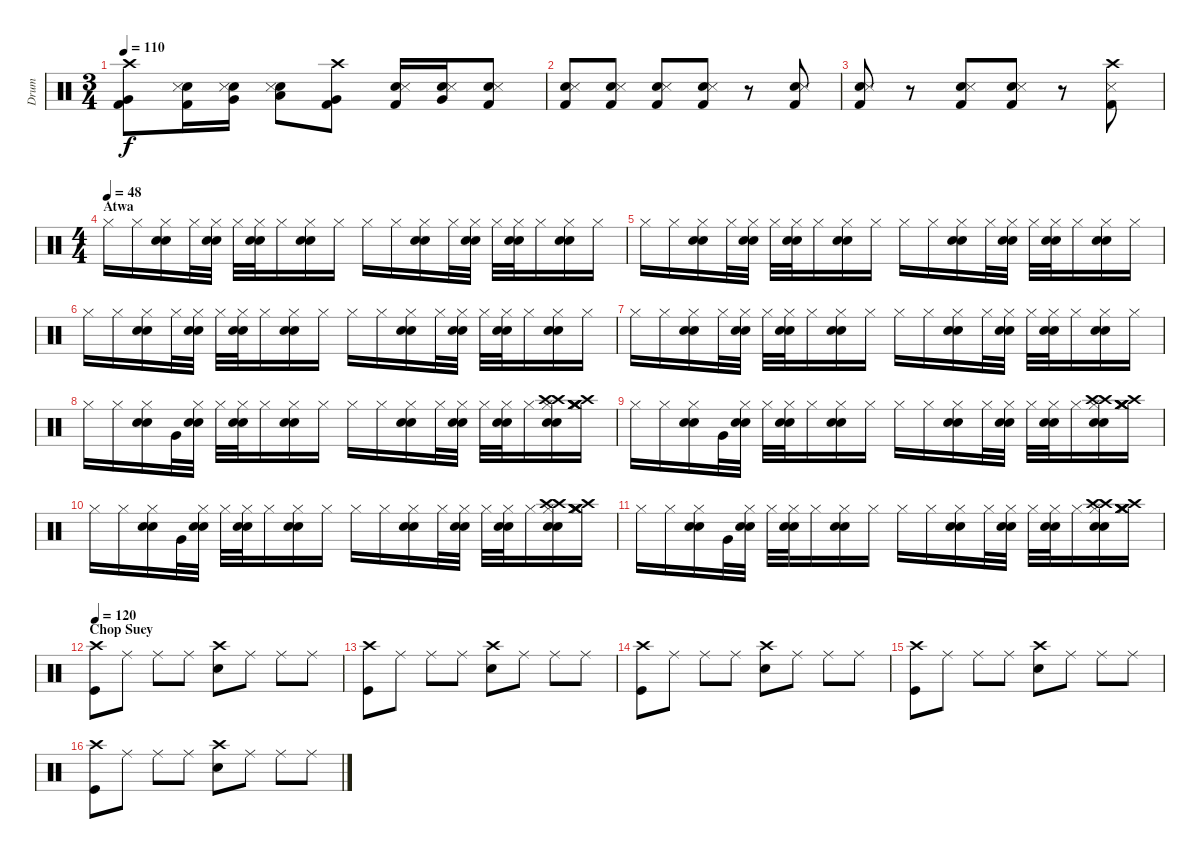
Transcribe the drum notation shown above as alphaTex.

\track ("Drum" "Drum") {instrument percussion}
\staff {score}
\articulation defaults
\ts (3 4)
\tempo 110
\clef neutral
\ks c
("Crash high (hit)" "Kick (hit) 2" "Very Low Tom (hit)").8{dy f} ("Electric Snare (hit)" "Snare (side stick) 3" "Kick (hit) 2").16 ("Electric Snare (hit)" "Snare (side stick) 3" "Very Low Tom (hit)").16 ("Electric Snare (hit)" "Snare (side stick) 3" "Low Floor Tom (hit)").8 ("Crash high (hit)" "Kick (hit) 2" "Very Low Tom (hit)").8 ("Electric Snare (hit)" "Snare (side stick) 3" "Kick (hit) 2").16 ("Electric Snare (hit)" "Snare (side stick) 3" "Very Low Tom (hit)").16 ("Electric Snare (hit)" "Snare (side stick) 3" "Kick (hit) 2").8 |
("Electric Snare (hit)" "Snare (side stick) 3" "Kick (hit) 2").8 ("Electric Snare (hit)" "Snare (side stick) 3" "Kick (hit) 2").8 ("Electric Snare (hit)" "Snare (side stick) 3" "Kick (hit) 2").8 ("Electric Snare (hit)" "Snare (side stick) 3" "Kick (hit) 2").8 r.8 ("Electric Snare (hit)" "Snare (side stick) 3" "Kick (hit) 2").8 |
("Electric Snare (hit)" "Snare (side stick) 3" "Kick (hit) 2").8 r.8 ("Electric Snare (hit)" "Snare (side stick) 3" "Kick (hit) 2").8 ("Electric Snare (hit)" "Snare (side stick) 3" "Kick (hit) 2").8 r.8 ("Crash high (hit)" "Snare (side stick) 3" "Kick (hit) 2").8 |
\ts (4 4)
\section ("" "Atwa")
\tempo (48)
"Hi-Hat (closed)".16 "Hi-Hat (closed)".16 ("Hi-Hat (closed)" "Snare (hit) 2" "Snare (hit) 2").16 "Hi-Hat (closed)".32 ("Hi-Hat (closed)" "Snare (hit) 2" "Snare (hit) 2").32 "Hi-Hat (closed)".32 ("Hi-Hat (closed)" "Snare (hit) 2" "Snare (hit) 2").32 "Hi-Hat (closed)".16 ("Hi-Hat (closed)" "Snare (hit) 2" "Snare (hit) 2").16 "Hi-Hat (closed)".16 "Hi-Hat (closed)".16 "Hi-Hat (closed)".16 ("Hi-Hat (closed)" "Snare (hit) 2" "Snare (hit) 2").16 "Hi-Hat (closed)".32 ("Hi-Hat (closed)" "Snare (hit) 2" "Snare (hit) 2").32 "Hi-Hat (closed)".32 ("Hi-Hat (closed)" "Snare (hit) 2" "Snare (hit) 2").32 "Hi-Hat (closed)".16 ("Hi-Hat (closed)" "Snare (hit) 2" "Snare (hit) 2").16 "Hi-Hat (closed)".16 |
"Hi-Hat (closed)".16 "Hi-Hat (closed)".16 ("Hi-Hat (closed)" "Snare (hit) 2" "Snare (hit) 2").16 "Hi-Hat (closed)".32 ("Hi-Hat (closed)" "Snare (hit) 2" "Snare (hit) 2").32 "Hi-Hat (closed)".32 ("Hi-Hat (closed)" "Snare (hit) 2" "Snare (hit) 2").32 "Hi-Hat (closed)".16 ("Hi-Hat (closed)" "Snare (hit) 2" "Snare (hit) 2").16 "Hi-Hat (closed)".16 "Hi-Hat (closed)".16 "Hi-Hat (closed)".16 ("Hi-Hat (closed)" "Snare (hit) 2" "Snare (hit) 2").16 "Hi-Hat (closed)".32 ("Hi-Hat (closed)" "Snare (hit) 2" "Snare (hit) 2").32 "Hi-Hat (closed)".32 ("Hi-Hat (closed)" "Snare (hit) 2" "Snare (hit) 2").32 "Hi-Hat (closed)".16 ("Hi-Hat (closed)" "Snare (hit) 2" "Snare (hit) 2").16 "Hi-Hat (closed)".16 |
"Hi-Hat (closed)".16 "Hi-Hat (closed)".16 ("Hi-Hat (closed)" "Snare (hit) 2" "Snare (hit) 2").16 "Hi-Hat (closed)".32 ("Hi-Hat (closed)" "Snare (hit) 2" "Snare (hit) 2").32 "Hi-Hat (closed)".32 ("Hi-Hat (closed)" "Snare (hit) 2" "Snare (hit) 2").32 "Hi-Hat (closed)".16 ("Hi-Hat (closed)" "Snare (hit) 2" "Snare (hit) 2").16 "Hi-Hat (closed)".16 "Hi-Hat (closed)".16 "Hi-Hat (closed)".16 ("Hi-Hat (closed)" "Snare (hit) 2" "Snare (hit) 2").16 "Hi-Hat (closed)".32 ("Hi-Hat (closed)" "Snare (hit) 2" "Snare (hit) 2").32 "Hi-Hat (closed)".32 ("Hi-Hat (closed)" "Snare (hit) 2" "Snare (hit) 2").32 "Hi-Hat (closed)".16 ("Hi-Hat (closed)" "Snare (hit) 2" "Snare (hit) 2").16 "Hi-Hat (closed)".16 |
"Hi-Hat (closed)".16 "Hi-Hat (closed)".16 ("Hi-Hat (closed)" "Snare (hit) 2" "Snare (hit) 2").16 "Hi-Hat (closed)".32 ("Hi-Hat (closed)" "Snare (hit) 2" "Snare (hit) 2").32 "Hi-Hat (closed)".32 ("Hi-Hat (closed)" "Snare (hit) 2" "Snare (hit) 2").32 "Hi-Hat (closed)".16 ("Hi-Hat (closed)" "Snare (hit) 2" "Snare (hit) 2").16 "Hi-Hat (closed)".16 "Hi-Hat (closed)".16 "Hi-Hat (closed)".16 ("Hi-Hat (closed)" "Snare (hit) 2" "Snare (hit) 2").16 "Hi-Hat (closed)".32 ("Hi-Hat (closed)" "Snare (hit) 2" "Snare (hit) 2").32 "Hi-Hat (closed)".32 ("Hi-Hat (closed)" "Snare (hit) 2" "Snare (hit) 2").32 "Hi-Hat (closed)".16 ("Hi-Hat (closed)" "Snare (hit) 2" "Snare (hit) 2").16 "Hi-Hat (closed)".16 |
"Hi-Hat (closed)".16 "Hi-Hat (closed)".16 ("Hi-Hat (closed)" "Snare (hit) 2" "Snare (hit) 2").16 "Very Low Tom (hit)".32 ("Hi-Hat (closed)" "Snare (hit) 2" "Snare (hit) 2").32 "Hi-Hat (closed)".32 ("Hi-Hat (closed)" "Snare (hit) 2" "Snare (hit) 2").32 "Hi-Hat (closed)".16 ("Hi-Hat (closed)" "Snare (hit) 2" "Snare (hit) 2").16 "Hi-Hat (closed)".16 "Hi-Hat (closed)".16 "Hi-Hat (closed)".16 ("Hi-Hat (closed)" "Snare (hit) 2" "Snare (hit) 2").16 "Hi-Hat (closed)".32 ("Hi-Hat (closed)" "Snare (hit) 2" "Snare (hit) 2").32 "Hi-Hat (closed)".32 ("Hi-Hat (closed)" "Snare (hit) 2" "Snare (hit) 2").32 "Hi-Hat (closed)".16 ("Hi-Hat (closed)" "Snare (hit) 2" "Snare (hit) 2" "Crash high (hit)" "Crash high (hit)").16 ("Hi-Hat (closed)" "Crash medium (hit)" "Crash medium (hit)" "Crash medium (hit)" "Crash high (hit)").16 |
"Hi-Hat (closed)".16 "Hi-Hat (closed)".16 ("Hi-Hat (closed)" "Snare (hit) 2" "Snare (hit) 2").16 "Very Low Tom (hit)".32 ("Hi-Hat (closed)" "Snare (hit) 2" "Snare (hit) 2").32 "Hi-Hat (closed)".32 ("Hi-Hat (closed)" "Snare (hit) 2" "Snare (hit) 2").32 "Hi-Hat (closed)".16 ("Hi-Hat (closed)" "Snare (hit) 2" "Snare (hit) 2").16 "Hi-Hat (closed)".16 "Hi-Hat (closed)".16 "Hi-Hat (closed)".16 ("Hi-Hat (closed)" "Snare (hit) 2" "Snare (hit) 2").16 "Hi-Hat (closed)".32 ("Hi-Hat (closed)" "Snare (hit) 2" "Snare (hit) 2").32 "Hi-Hat (closed)".32 ("Hi-Hat (closed)" "Snare (hit) 2" "Snare (hit) 2").32 "Hi-Hat (closed)".16 ("Hi-Hat (closed)" "Snare (hit) 2" "Snare (hit) 2" "Crash high (hit)" "Crash high (hit)").16 ("Hi-Hat (closed)" "Crash medium (hit)" "Crash medium (hit)" "Crash medium (hit)" "Crash high (hit)").16 |
"Hi-Hat (closed)".16 "Hi-Hat (closed)".16 ("Hi-Hat (closed)" "Snare (hit) 2" "Snare (hit) 2").16 "Very Low Tom (hit)".32 ("Hi-Hat (closed)" "Snare (hit) 2" "Snare (hit) 2").32 "Hi-Hat (closed)".32 ("Hi-Hat (closed)" "Snare (hit) 2" "Snare (hit) 2").32 "Hi-Hat (closed)".16 ("Hi-Hat (closed)" "Snare (hit) 2" "Snare (hit) 2").16 "Hi-Hat (closed)".16 "Hi-Hat (closed)".16 "Hi-Hat (closed)".16 ("Hi-Hat (closed)" "Snare (hit) 2" "Snare (hit) 2").16 "Hi-Hat (closed)".32 ("Hi-Hat (closed)" "Snare (hit) 2" "Snare (hit) 2").32 "Hi-Hat (closed)".32 ("Hi-Hat (closed)" "Snare (hit) 2" "Snare (hit) 2").32 "Hi-Hat (closed)".16 ("Hi-Hat (closed)" "Snare (hit) 2" "Snare (hit) 2" "Crash high (hit)" "Crash high (hit)").16 ("Hi-Hat (closed)" "Crash medium (hit)" "Crash medium (hit)" "Crash medium (hit)" "Crash high (hit)").16 |
"Hi-Hat (closed)".16 "Hi-Hat (closed)".16 ("Hi-Hat (closed)" "Snare (hit) 2" "Snare (hit) 2").16 "Very Low Tom (hit)".32 ("Hi-Hat (closed)" "Snare (hit) 2" "Snare (hit) 2").32 "Hi-Hat (closed)".32 ("Hi-Hat (closed)" "Snare (hit) 2" "Snare (hit) 2").32 "Hi-Hat (closed)".16 ("Hi-Hat (closed)" "Snare (hit) 2" "Snare (hit) 2").16 "Hi-Hat (closed)".16 "Hi-Hat (closed)".16 "Hi-Hat (closed)".16 ("Hi-Hat (closed)" "Snare (hit) 2" "Snare (hit) 2").16 "Hi-Hat (closed)".32 ("Hi-Hat (closed)" "Snare (hit) 2" "Snare (hit) 2").32 "Hi-Hat (closed)".32 ("Hi-Hat (closed)" "Snare (hit) 2" "Snare (hit) 2").32 "Hi-Hat (closed)".16 ("Hi-Hat (closed)" "Snare (hit) 2" "Snare (hit) 2" "Crash high (hit)" "Crash high (hit)").16 ("Hi-Hat (closed)" "Crash medium (hit)" "Crash medium (hit)" "Crash medium (hit)" "Crash high (hit)").16 |
\section ("" "Chop Suey")
\tempo 120
("Crash high (hit)" "Kick (hit)").8{volume 16} "Ride (middle)".8 "Ride (middle)".8 "Ride (middle)".8 ("Crash high (hit)" "Snare (hit) 2").8 "Ride (middle)".8 "Ride (middle)".8 "Ride (middle)".8 |
("Crash high (hit)" "Kick (hit)").8 "Ride (middle)".8 "Ride (middle)".8 "Ride (middle)".8 ("Crash high (hit)" "Snare (hit) 2").8 "Ride (middle)".8 "Ride (middle)".8 "Ride (middle)".8 |
("Crash high (hit)" "Kick (hit)").8 "Ride (middle)".8 "Ride (middle)".8 "Ride (middle)".8 ("Crash high (hit)" "Snare (hit) 2").8 "Ride (middle)".8 "Ride (middle)".8 "Ride (middle)".8 |
("Crash high (hit)" "Kick (hit)").8 "Ride (middle)".8 "Ride (middle)".8 "Ride (middle)".8 ("Crash high (hit)" "Snare (hit) 2").8 "Ride (middle)".8 "Ride (middle)".8 "Ride (middle)".8 |
("Crash high (hit)" "Kick (hit)").8 "Ride (middle)".8 "Ride (middle)".8 "Ride (middle)".8 ("Crash high (hit)" "Snare (hit) 2").8 "Ride (middle)".8 "Ride (middle)".8 "Ride (middle)".8
